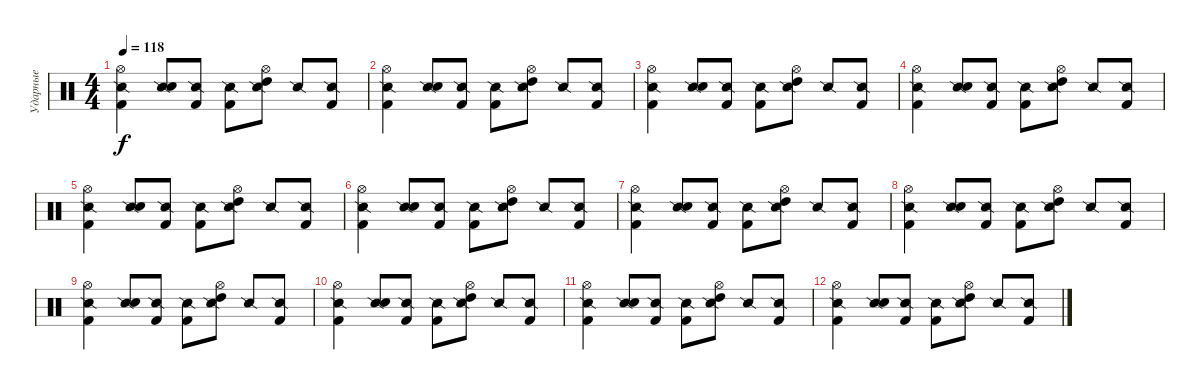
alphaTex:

\track ("Ударные" "Ударные") {solo instrument percussion}
\staff {score}
\articulation defaults
\ts (4 4)
\tempo 118
\clef neutral
\ks c
("Hi-Hat (open)" "Snare (side stick) 2" "Kick (hit) 2").4{dy f} ("Snare (side stick) 2" "Electric Snare (hit)").8 ("Snare (side stick) 2" "Kick (hit) 2").8 ("Snare (side stick) 2" "Kick (hit) 2").8 ("Hi-Hat (open)" "Snare (side stick) 2" "High Tom (hit)").8 "Snare (side stick) 2".8 ("Snare (side stick) 2" "Kick (hit) 2").8 |
("Hi-Hat (open)" "Snare (side stick) 2" "Kick (hit) 2").4 ("Snare (side stick) 2" "Electric Snare (hit)").8 ("Snare (side stick) 2" "Kick (hit) 2").8 ("Snare (side stick) 2" "Kick (hit) 2").8 ("Hi-Hat (open)" "Snare (side stick) 2" "High Tom (hit)").8 "Snare (side stick) 2".8 ("Snare (side stick) 2" "Kick (hit) 2").8 |
("Hi-Hat (open)" "Snare (side stick) 2" "Kick (hit) 2").4 ("Snare (side stick) 2" "Electric Snare (hit)").8 ("Snare (side stick) 2" "Kick (hit) 2").8 ("Snare (side stick) 2" "Kick (hit) 2").8 ("Hi-Hat (open)" "Snare (side stick) 2" "High Tom (hit)").8 "Snare (side stick) 2".8 ("Snare (side stick) 2" "Kick (hit) 2").8 |
("Hi-Hat (open)" "Snare (side stick) 2" "Kick (hit) 2").4 ("Snare (side stick) 2" "Electric Snare (hit)").8 ("Snare (side stick) 2" "Kick (hit) 2").8 ("Snare (side stick) 2" "Kick (hit) 2").8 ("Hi-Hat (open)" "Snare (side stick) 2" "High Tom (hit)").8 "Snare (side stick) 2".8 ("Snare (side stick) 2" "Kick (hit) 2").8 |
("Hi-Hat (open)" "Snare (side stick) 2" "Kick (hit) 2").4 ("Snare (side stick) 2" "Electric Snare (hit)").8 ("Snare (side stick) 2" "Kick (hit) 2").8 ("Snare (side stick) 2" "Kick (hit) 2").8 ("Hi-Hat (open)" "Snare (side stick) 2" "High Tom (hit)").8 "Snare (side stick) 2".8 ("Snare (side stick) 2" "Kick (hit) 2").8 |
("Hi-Hat (open)" "Snare (side stick) 2" "Kick (hit) 2").4 ("Snare (side stick) 2" "Electric Snare (hit)").8 ("Snare (side stick) 2" "Kick (hit) 2").8 ("Snare (side stick) 2" "Kick (hit) 2").8 ("Hi-Hat (open)" "Snare (side stick) 2" "High Tom (hit)").8 "Snare (side stick) 2".8 ("Snare (side stick) 2" "Kick (hit) 2").8 |
("Hi-Hat (open)" "Snare (side stick) 2" "Kick (hit) 2").4 ("Snare (side stick) 2" "Electric Snare (hit)").8 ("Snare (side stick) 2" "Kick (hit) 2").8 ("Snare (side stick) 2" "Kick (hit) 2").8 ("Hi-Hat (open)" "Snare (side stick) 2" "High Tom (hit)").8 "Snare (side stick) 2".8 ("Snare (side stick) 2" "Kick (hit) 2").8 |
("Hi-Hat (open)" "Snare (side stick) 2" "Kick (hit) 2").4 ("Snare (side stick) 2" "Electric Snare (hit)").8 ("Snare (side stick) 2" "Kick (hit) 2").8 ("Snare (side stick) 2" "Kick (hit) 2").8 ("Hi-Hat (open)" "Snare (side stick) 2" "High Tom (hit)").8 "Snare (side stick) 2".8 ("Snare (side stick) 2" "Kick (hit) 2").8 |
("Hi-Hat (open)" "Snare (side stick) 2" "Kick (hit) 2").4 ("Snare (side stick) 2" "Electric Snare (hit)").8 ("Snare (side stick) 2" "Kick (hit) 2").8 ("Snare (side stick) 2" "Kick (hit) 2").8 ("Hi-Hat (open)" "Snare (side stick) 2" "High Tom (hit)").8 "Snare (side stick) 2".8 ("Snare (side stick) 2" "Kick (hit) 2").8 |
("Hi-Hat (open)" "Snare (side stick) 2" "Kick (hit) 2").4 ("Snare (side stick) 2" "Electric Snare (hit)").8 ("Snare (side stick) 2" "Kick (hit) 2").8 ("Snare (side stick) 2" "Kick (hit) 2").8 ("Hi-Hat (open)" "Snare (side stick) 2" "High Tom (hit)").8 "Snare (side stick) 2".8 ("Snare (side stick) 2" "Kick (hit) 2").8 |
("Hi-Hat (open)" "Snare (side stick) 2" "Kick (hit) 2").4 ("Snare (side stick) 2" "Electric Snare (hit)").8 ("Snare (side stick) 2" "Kick (hit) 2").8 ("Snare (side stick) 2" "Kick (hit) 2").8 ("Hi-Hat (open)" "Snare (side stick) 2" "High Tom (hit)").8 "Snare (side stick) 2".8 ("Snare (side stick) 2" "Kick (hit) 2").8 |
("Hi-Hat (open)" "Snare (side stick) 2" "Kick (hit) 2").4 ("Snare (side stick) 2" "Electric Snare (hit)").8 ("Snare (side stick) 2" "Kick (hit) 2").8 ("Snare (side stick) 2" "Kick (hit) 2").8 ("Hi-Hat (open)" "Snare (side stick) 2" "High Tom (hit)").8 "Snare (side stick) 2".8 ("Snare (side stick) 2" "Kick (hit) 2").8
